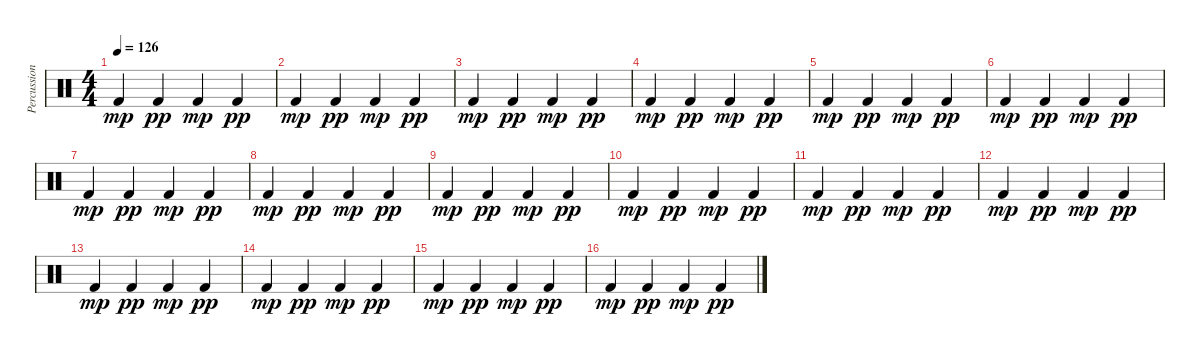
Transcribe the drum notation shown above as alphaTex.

\track ("Percussion" "Percussion") {instrument percussion}
\staff {score}
\articulation defaults
\ts (4 4)
\tempo 126
\clef neutral
\ks c "Kick (hit) 2".4{dy mp} "Kick (hit) 2".4{dy pp} "Kick (hit) 2".4{dy mp} "Kick (hit) 2".4{dy pp}
|
"Kick (hit) 2".4{dy mp} "Kick (hit) 2".4{dy pp} "Kick (hit) 2".4{dy mp} "Kick (hit) 2".4{dy pp} |
"Kick (hit) 2".4{dy mp} "Kick (hit) 2".4{dy pp} "Kick (hit) 2".4{dy mp} "Kick (hit) 2".4{dy pp} |
"Kick (hit) 2".4{dy mp} "Kick (hit) 2".4{dy pp} "Kick (hit) 2".4{dy mp} "Kick (hit) 2".4{dy pp} |
"Kick (hit) 2".4{dy mp} "Kick (hit) 2".4{dy pp} "Kick (hit) 2".4{dy mp} "Kick (hit) 2".4{dy pp} |
"Kick (hit) 2".4{dy mp} "Kick (hit) 2".4{dy pp} "Kick (hit) 2".4{dy mp} "Kick (hit) 2".4{dy pp} |
"Kick (hit) 2".4{dy mp} "Kick (hit) 2".4{dy pp} "Kick (hit) 2".4{dy mp} "Kick (hit) 2".4{dy pp} |
"Kick (hit) 2".4{dy mp} "Kick (hit) 2".4{dy pp} "Kick (hit) 2".4{dy mp} "Kick (hit) 2".4{dy pp} |
"Kick (hit) 2".4{dy mp} "Kick (hit) 2".4{dy pp} "Kick (hit) 2".4{dy mp} "Kick (hit) 2".4{dy pp} |
"Kick (hit) 2".4{dy mp} "Kick (hit) 2".4{dy pp} "Kick (hit) 2".4{dy mp} "Kick (hit) 2".4{dy pp} |
"Kick (hit) 2".4{dy mp} "Kick (hit) 2".4{dy pp} "Kick (hit) 2".4{dy mp} "Kick (hit) 2".4{dy pp} |
"Kick (hit) 2".4{dy mp} "Kick (hit) 2".4{dy pp} "Kick (hit) 2".4{dy mp} "Kick (hit) 2".4{dy pp} |
"Kick (hit) 2".4{dy mp} "Kick (hit) 2".4{dy pp} "Kick (hit) 2".4{dy mp} "Kick (hit) 2".4{dy pp} |
"Kick (hit) 2".4{dy mp} "Kick (hit) 2".4{dy pp} "Kick (hit) 2".4{dy mp} "Kick (hit) 2".4{dy pp} |
"Kick (hit) 2".4{dy mp} "Kick (hit) 2".4{dy pp} "Kick (hit) 2".4{dy mp} "Kick (hit) 2".4{dy pp} |
"Kick (hit) 2".4{dy mp} "Kick (hit) 2".4{dy pp} "Kick (hit) 2".4{dy mp} "Kick (hit) 2".4{dy pp}
